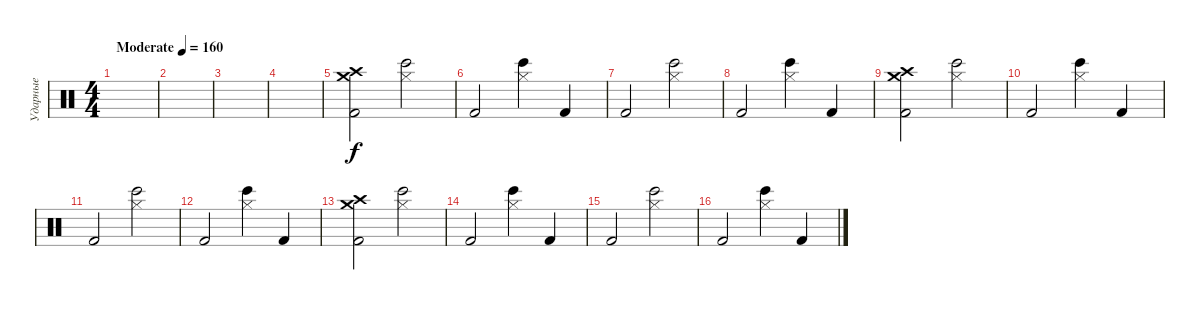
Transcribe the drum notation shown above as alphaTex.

\track ("Ударные" "Ударные") {instrument percussion}
\staff {score}
\articulation defaults
\ts (4 4)
\tempo (160 "Moderate")
\clef neutral
\ks c
|
|
|
|
("Crash high (hit)" "Crash medium (hit)" "Kick (hit) 2").2 ("Hi-Hat (closed)" "Bongo High (hit)").2 |
"Kick (hit) 2".2 ("Hi-Hat (closed)" "Bongo High (hit)").4 "Kick (hit) 2".4 |
"Kick (hit) 2".2 ("Hi-Hat (closed)" "Bongo High (hit)").2 |
"Kick (hit) 2".2 ("Hi-Hat (closed)" "Bongo High (hit)").4 "Kick (hit) 2".4 |
("Crash high (hit)" "Crash medium (hit)" "Kick (hit) 2").2 ("Hi-Hat (closed)" "Bongo High (hit)").2 |
"Kick (hit) 2".2 ("Hi-Hat (closed)" "Bongo High (hit)").4 "Kick (hit) 2".4 |
"Kick (hit) 2".2 ("Hi-Hat (closed)" "Bongo High (hit)").2 |
"Kick (hit) 2".2 ("Hi-Hat (closed)" "Bongo High (hit)").4 "Kick (hit) 2".4 |
("Crash high (hit)" "Crash medium (hit)" "Kick (hit) 2").2 ("Hi-Hat (closed)" "Bongo High (hit)").2 |
"Kick (hit) 2".2 ("Hi-Hat (closed)" "Bongo High (hit)").4 "Kick (hit) 2".4 |
"Kick (hit) 2".2 ("Hi-Hat (closed)" "Bongo High (hit)").2 |
"Kick (hit) 2".2 ("Hi-Hat (closed)" "Bongo High (hit)").4 "Kick (hit) 2".4
